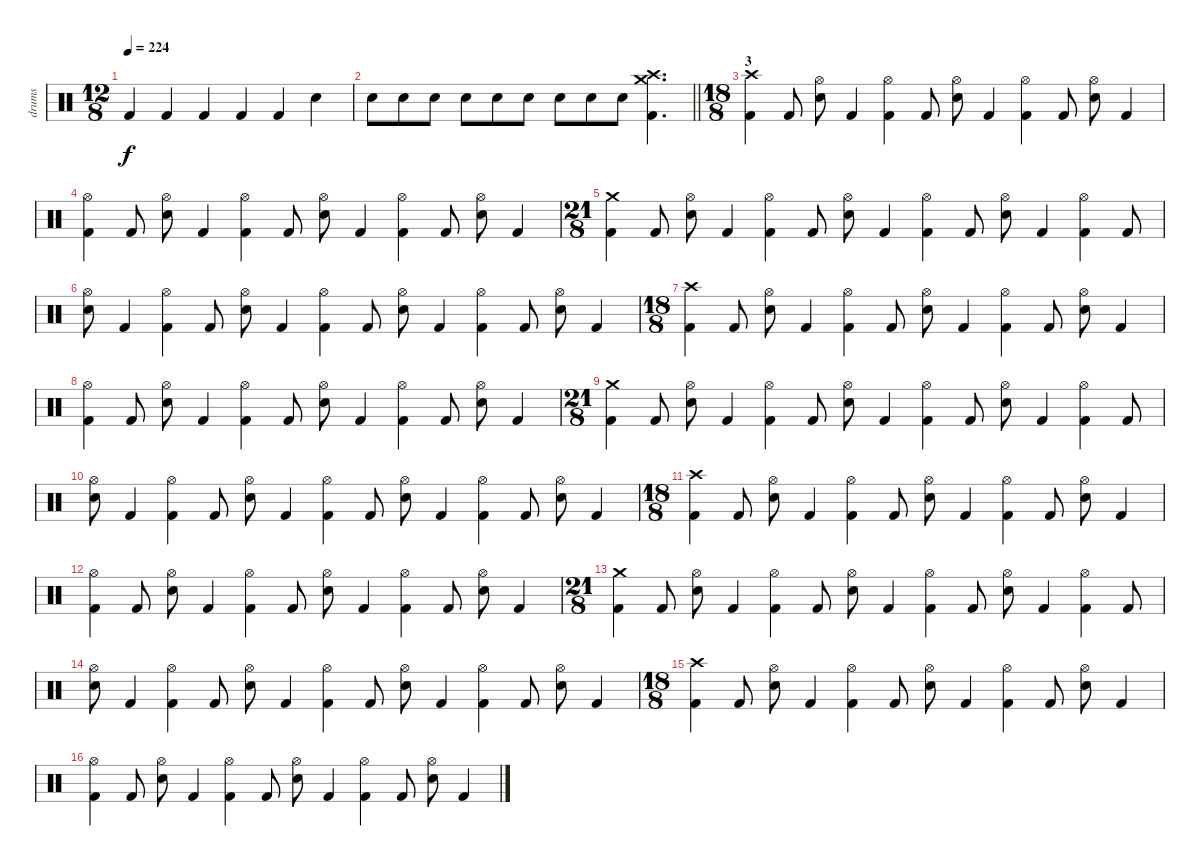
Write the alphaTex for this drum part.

\track ("drums" "drums") {instrument percussion}
\staff {score}
\articulation defaults
\ts (12 8)
\tempo 224
\clef neutral
\ks c "Kick (hit) 2".4{dy f} "Kick (hit) 2".4 "Kick (hit) 2".4 "Kick (hit) 2".4 "Kick (hit) 2".4 "Electric Snare (hit)".4
|
\barLineRight lightlight "Electric Snare (hit)".8 "Electric Snare (hit)".8 "Electric Snare (hit)".8 "Electric Snare (hit)".8 "Electric Snare (hit)".8 "Electric Snare (hit)".8 "Electric Snare (hit)".8 "Electric Snare (hit)".8 "Electric Snare (hit)".8
("Crash medium (hit)" "Crash high (hit)" "Kick (hit) 2").4{d} |
\ts (18 8)
\section ("" "3")
("Crash high (hit)" "Kick (hit) 2").4 "Kick (hit) 2".8 ("Hi-Hat (open)" "Electric Snare (hit)").8 "Kick (hit) 2".4 ("Hi-Hat (open)" "Kick (hit) 2").4 "Kick (hit) 2".8 ("Hi-Hat (open)" "Electric Snare (hit)").8 "Kick (hit) 2".4 ("Hi-Hat (open)" "Kick (hit) 2").4 "Kick (hit) 2".8 ("Hi-Hat (open)" "Electric Snare (hit)").8 "Kick (hit) 2".4 |
("Hi-Hat (open)" "Kick (hit) 2").4 "Kick (hit) 2".8 ("Electric Snare (hit)" "Hi-Hat (open)").8 "Kick (hit) 2".4 ("Hi-Hat (open)" "Kick (hit) 2").4 "Kick (hit) 2".8 ("Electric Snare (hit)" "Hi-Hat (open)").8 "Kick (hit) 2".4 ("Hi-Hat (open)" "Kick (hit) 2").4 "Kick (hit) 2".8 ("Electric Snare (hit)" "Hi-Hat (open)").8 "Kick (hit) 2".4 |
\ts (21 8)
("Kick (hit) 2" "Crash medium (hit)").4 "Kick (hit) 2".8 ("Electric Snare (hit)" "Hi-Hat (open)").8 "Kick (hit) 2".4 ("Kick (hit) 2" "Hi-Hat (open)").4 "Kick (hit) 2".8 ("Electric Snare (hit)" "Hi-Hat (open)").8 "Kick (hit) 2".4 ("Kick (hit) 2" "Hi-Hat (open)").4 "Kick (hit) 2".8 ("Electric Snare (hit)" "Hi-Hat (open)").8 "Kick (hit) 2".4 ("Kick (hit) 2" "Hi-Hat (open)").4 "Kick (hit) 2".8 |
("Electric Snare (hit)" "Hi-Hat (open)").8 "Kick (hit) 2".4 ("Kick (hit) 2" "Hi-Hat (open)").4 "Kick (hit) 2".8 ("Electric Snare (hit)" "Hi-Hat (open)").8 "Kick (hit) 2".4 ("Kick (hit) 2" "Hi-Hat (open)").4 "Kick (hit) 2".8 ("Electric Snare (hit)" "Hi-Hat (open)").8 "Kick (hit) 2".4 ("Kick (hit) 2" "Hi-Hat (open)").4 "Kick (hit) 2".8 ("Electric Snare (hit)" "Hi-Hat (open)").8 "Kick (hit) 2".4 |
\ts (18 8)
("Crash high (hit)" "Kick (hit) 2").4 "Kick (hit) 2".8 ("Hi-Hat (open)" "Electric Snare (hit)").8 "Kick (hit) 2".4 ("Hi-Hat (open)" "Kick (hit) 2").4 "Kick (hit) 2".8 ("Hi-Hat (open)" "Electric Snare (hit)").8 "Kick (hit) 2".4 ("Hi-Hat (open)" "Kick (hit) 2").4 "Kick (hit) 2".8 ("Hi-Hat (open)" "Electric Snare (hit)").8 "Kick (hit) 2".4 |
("Hi-Hat (open)" "Kick (hit) 2").4 "Kick (hit) 2".8 ("Electric Snare (hit)" "Hi-Hat (open)").8 "Kick (hit) 2".4 ("Hi-Hat (open)" "Kick (hit) 2").4 "Kick (hit) 2".8 ("Electric Snare (hit)" "Hi-Hat (open)").8 "Kick (hit) 2".4 ("Hi-Hat (open)" "Kick (hit) 2").4 "Kick (hit) 2".8 ("Electric Snare (hit)" "Hi-Hat (open)").8 "Kick (hit) 2".4 |
\ts (21 8)
("Kick (hit) 2" "Crash medium (hit)").4 "Kick (hit) 2".8 ("Electric Snare (hit)" "Hi-Hat (open)").8 "Kick (hit) 2".4 ("Kick (hit) 2" "Hi-Hat (open)").4 "Kick (hit) 2".8 ("Electric Snare (hit)" "Hi-Hat (open)").8 "Kick (hit) 2".4 ("Kick (hit) 2" "Hi-Hat (open)").4 "Kick (hit) 2".8 ("Electric Snare (hit)" "Hi-Hat (open)").8 "Kick (hit) 2".4 ("Kick (hit) 2" "Hi-Hat (open)").4 "Kick (hit) 2".8 |
("Electric Snare (hit)" "Hi-Hat (open)").8 "Kick (hit) 2".4 ("Kick (hit) 2" "Hi-Hat (open)").4 "Kick (hit) 2".8 ("Electric Snare (hit)" "Hi-Hat (open)").8 "Kick (hit) 2".4 ("Kick (hit) 2" "Hi-Hat (open)").4 "Kick (hit) 2".8 ("Electric Snare (hit)" "Hi-Hat (open)").8 "Kick (hit) 2".4 ("Kick (hit) 2" "Hi-Hat (open)").4 "Kick (hit) 2".8 ("Electric Snare (hit)" "Hi-Hat (open)").8 "Kick (hit) 2".4 |
\ts (18 8)
("Crash high (hit)" "Kick (hit) 2").4 "Kick (hit) 2".8 ("Hi-Hat (open)" "Electric Snare (hit)").8 "Kick (hit) 2".4 ("Hi-Hat (open)" "Kick (hit) 2").4 "Kick (hit) 2".8 ("Hi-Hat (open)" "Electric Snare (hit)").8 "Kick (hit) 2".4 ("Hi-Hat (open)" "Kick (hit) 2").4 "Kick (hit) 2".8 ("Hi-Hat (open)" "Electric Snare (hit)").8 "Kick (hit) 2".4 |
("Hi-Hat (open)" "Kick (hit) 2").4 "Kick (hit) 2".8 ("Electric Snare (hit)" "Hi-Hat (open)").8 "Kick (hit) 2".4 ("Hi-Hat (open)" "Kick (hit) 2").4 "Kick (hit) 2".8 ("Electric Snare (hit)" "Hi-Hat (open)").8 "Kick (hit) 2".4 ("Hi-Hat (open)" "Kick (hit) 2").4 "Kick (hit) 2".8 ("Electric Snare (hit)" "Hi-Hat (open)").8 "Kick (hit) 2".4 |
\ts (21 8)
("Kick (hit) 2" "Crash medium (hit)").4 "Kick (hit) 2".8 ("Electric Snare (hit)" "Hi-Hat (open)").8 "Kick (hit) 2".4 ("Kick (hit) 2" "Hi-Hat (open)").4 "Kick (hit) 2".8 ("Electric Snare (hit)" "Hi-Hat (open)").8 "Kick (hit) 2".4 ("Kick (hit) 2" "Hi-Hat (open)").4 "Kick (hit) 2".8 ("Electric Snare (hit)" "Hi-Hat (open)").8 "Kick (hit) 2".4 ("Kick (hit) 2" "Hi-Hat (open)").4 "Kick (hit) 2".8 |
("Electric Snare (hit)" "Hi-Hat (open)").8 "Kick (hit) 2".4 ("Kick (hit) 2" "Hi-Hat (open)").4 "Kick (hit) 2".8 ("Electric Snare (hit)" "Hi-Hat (open)").8 "Kick (hit) 2".4 ("Kick (hit) 2" "Hi-Hat (open)").4 "Kick (hit) 2".8 ("Electric Snare (hit)" "Hi-Hat (open)").8 "Kick (hit) 2".4 ("Kick (hit) 2" "Hi-Hat (open)").4 "Kick (hit) 2".8 ("Electric Snare (hit)" "Hi-Hat (open)").8 "Kick (hit) 2".4 |
\ts (18 8)
("Crash high (hit)" "Kick (hit) 2").4 "Kick (hit) 2".8 ("Hi-Hat (open)" "Electric Snare (hit)").8 "Kick (hit) 2".4 ("Hi-Hat (open)" "Kick (hit) 2").4 "Kick (hit) 2".8 ("Hi-Hat (open)" "Electric Snare (hit)").8 "Kick (hit) 2".4 ("Hi-Hat (open)" "Kick (hit) 2").4 "Kick (hit) 2".8 ("Hi-Hat (open)" "Electric Snare (hit)").8 "Kick (hit) 2".4 |
("Hi-Hat (open)" "Kick (hit) 2").4 "Kick (hit) 2".8 ("Electric Snare (hit)" "Hi-Hat (open)").8 "Kick (hit) 2".4 ("Hi-Hat (open)" "Kick (hit) 2").4 "Kick (hit) 2".8 ("Electric Snare (hit)" "Hi-Hat (open)").8 "Kick (hit) 2".4 ("Hi-Hat (open)" "Kick (hit) 2").4 "Kick (hit) 2".8 ("Electric Snare (hit)" "Hi-Hat (open)").8 "Kick (hit) 2".4
